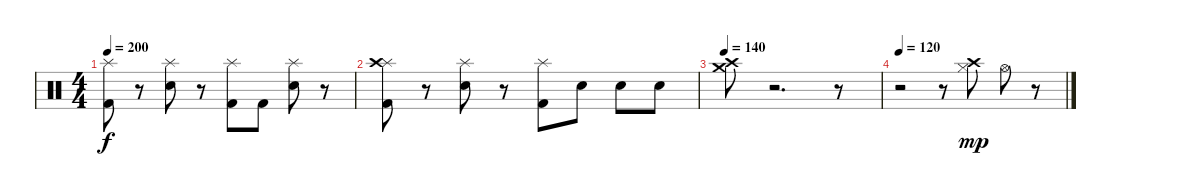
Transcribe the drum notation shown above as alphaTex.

\track "" {instrument percussion}
\staff {score}
\articulation defaults
\ts (4 4)
\tempo 200
\clef neutral
\ks c
("Splash (hit)" "Kick (hit) 2").8{dy f} r.8 ("Splash (hit)" "Electric Snare (hit)").8 r.8 ("Splash (hit)" "Kick (hit) 2").8 "Kick (hit) 2".8 ("Splash (hit)" "Electric Snare (hit)").8 r.8 |
("Splash (hit)" "Crash high (hit)" "Kick (hit) 2").8 r.8 ("Splash (hit)" "Electric Snare (hit)").8 r.8 ("Splash (hit)" "Kick (hit) 2").8 "Electric Snare (hit)".8 "Electric Snare (hit)".8 "Electric Snare (hit)".8 |
\tempo 140
("Crash medium (hit)" "Crash high (hit)").8 r.2{d} r.8 |
\tempo 120
r.2 r.8 ("Crash high (hit)" "Hi-Hat (closed)").8{dy mp} "Hi-Hat (open)".8 r.8
